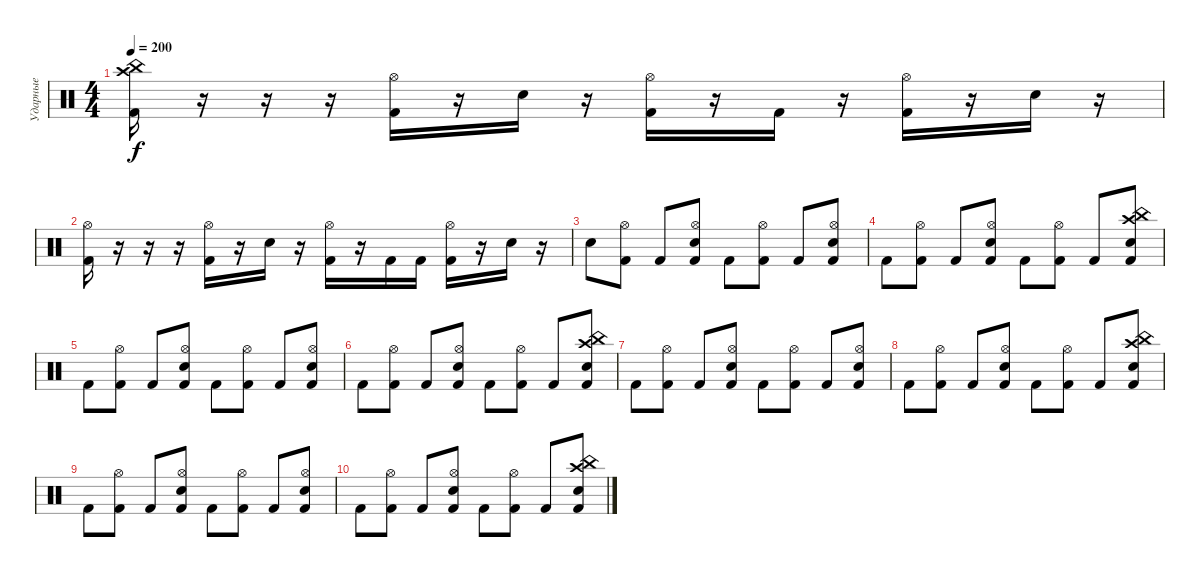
\track ("Ударные" "Ударные") {instrument percussion}
\staff {score}
\articulation defaults
\ts (4 4)
\tempo 200
\clef neutral
\ks c
("Kick (hit) 2" "China (hit)" "Crash high (hit)").16{dy f} r.16 r.16 r.16 ("Kick (hit) 2" "Hi-Hat (open)").16 r.16 "Electric Snare (hit)".16 r.16 ("Kick (hit) 2" "Hi-Hat (open)").16 r.16 "Kick (hit) 2".16 r.16 ("Kick (hit) 2" "Hi-Hat (open)").16 r.16 "Electric Snare (hit)".16 r.16 |
("Kick (hit) 2" "Hi-Hat (open)").16 r.16 r.16 r.16 ("Kick (hit) 2" "Hi-Hat (open)").16 r.16 "Electric Snare (hit)".16 r.16 ("Kick (hit) 2" "Hi-Hat (open)").16 r.16 "Kick (hit) 2".16 "Kick (hit) 2".16 ("Kick (hit) 2" "Hi-Hat (open)").16 r.16 "Electric Snare (hit)".16 r.16 |
"Electric Snare (hit)".8 ("Kick (hit) 2" "Hi-Hat (open)").8 "Kick (hit) 2".8 ("Kick (hit) 2" "Electric Snare (hit)" "Hi-Hat (open)").8 "Kick (hit) 2".8 ("Kick (hit) 2" "Hi-Hat (open)").8 "Kick (hit) 2".8 ("Kick (hit) 2" "Electric Snare (hit)" "Hi-Hat (open)").8 |
"Kick (hit) 2".8 ("Kick (hit) 2" "Hi-Hat (open)").8 "Kick (hit) 2".8 ("Kick (hit) 2" "Electric Snare (hit)" "Hi-Hat (open)").8 "Kick (hit) 2".8 ("Kick (hit) 2" "Hi-Hat (open)").8 "Kick (hit) 2".8 ("Kick (hit) 2" "Electric Snare (hit)" "Crash high (hit)" "China (hit)").8 |
"Kick (hit) 2".8 ("Kick (hit) 2" "Hi-Hat (open)").8 "Kick (hit) 2".8 ("Kick (hit) 2" "Electric Snare (hit)" "Hi-Hat (open)").8 "Kick (hit) 2".8 ("Kick (hit) 2" "Hi-Hat (open)").8 "Kick (hit) 2".8 ("Kick (hit) 2" "Electric Snare (hit)" "Hi-Hat (open)").8 |
"Kick (hit) 2".8 ("Kick (hit) 2" "Hi-Hat (open)").8 "Kick (hit) 2".8 ("Kick (hit) 2" "Electric Snare (hit)" "Hi-Hat (open)").8 "Kick (hit) 2".8 ("Kick (hit) 2" "Hi-Hat (open)").8 "Kick (hit) 2".8 ("Kick (hit) 2" "Electric Snare (hit)" "Crash high (hit)" "China (hit)").8 |
"Kick (hit) 2".8 ("Kick (hit) 2" "Hi-Hat (open)").8 "Kick (hit) 2".8 ("Kick (hit) 2" "Electric Snare (hit)" "Hi-Hat (open)").8 "Kick (hit) 2".8 ("Kick (hit) 2" "Hi-Hat (open)").8 "Kick (hit) 2".8 ("Kick (hit) 2" "Electric Snare (hit)" "Hi-Hat (open)").8 |
"Kick (hit) 2".8 ("Kick (hit) 2" "Hi-Hat (open)").8 "Kick (hit) 2".8 ("Kick (hit) 2" "Electric Snare (hit)" "Hi-Hat (open)").8 "Kick (hit) 2".8 ("Kick (hit) 2" "Hi-Hat (open)").8 "Kick (hit) 2".8 ("Kick (hit) 2" "Electric Snare (hit)" "Crash high (hit)" "China (hit)").8 |
"Kick (hit) 2".8 ("Kick (hit) 2" "Hi-Hat (open)").8 "Kick (hit) 2".8 ("Kick (hit) 2" "Electric Snare (hit)" "Hi-Hat (open)").8 "Kick (hit) 2".8 ("Kick (hit) 2" "Hi-Hat (open)").8 "Kick (hit) 2".8 ("Kick (hit) 2" "Electric Snare (hit)" "Hi-Hat (open)").8 |
"Kick (hit) 2".8 ("Kick (hit) 2" "Hi-Hat (open)").8 "Kick (hit) 2".8 ("Kick (hit) 2" "Electric Snare (hit)" "Hi-Hat (open)").8 "Kick (hit) 2".8 ("Kick (hit) 2" "Hi-Hat (open)").8 "Kick (hit) 2".8 ("Kick (hit) 2" "Electric Snare (hit)" "Crash high (hit)" "China (hit)").8
